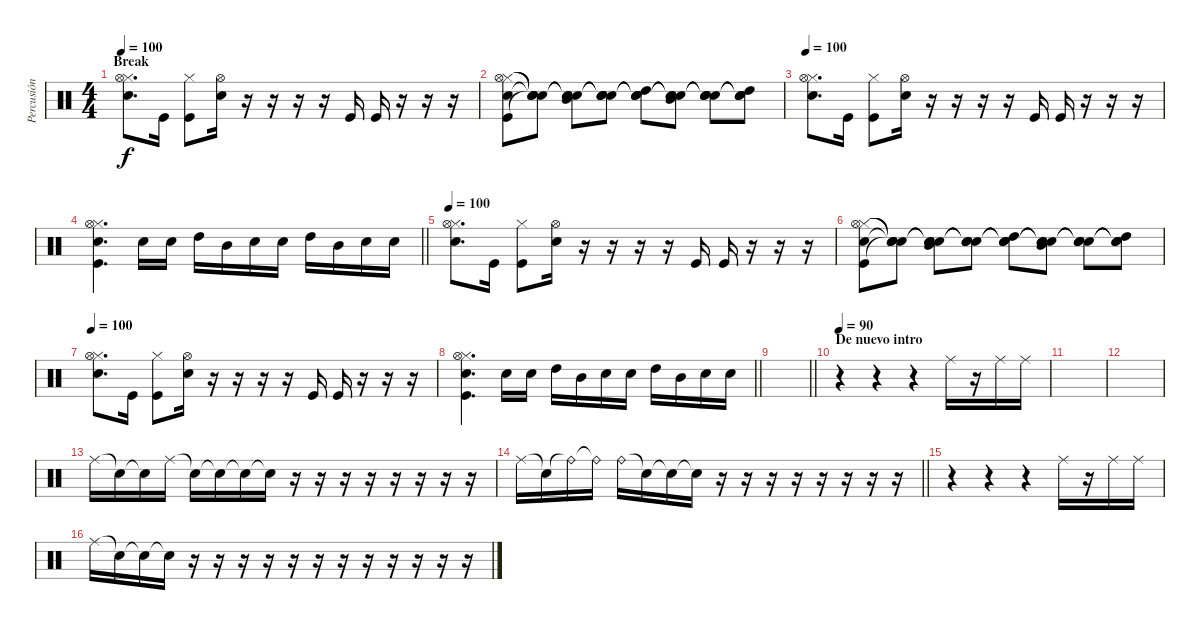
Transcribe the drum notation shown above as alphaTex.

\track ("Percusión" "Percusión") {instrument percussion}
\staff {score}
\articulation defaults
\ts (4 4)
\section ("" "Break")
\tempo 100
\clef neutral
\ks c
("Hi-Hat (closed)" "Hi-Hat (open)" "Electric Snare (hit)").8{d dy f} "Kick (hit)".16 ("Hi-Hat (closed)" "Kick (hit)").8 ("Hi-Hat (open)" "Electric Snare (hit)").16 r.16 r.16 r.16 r.16 "Kick (hit)".16 "Kick (hit)".16 r.16 r.16 r.16 |
("Hi-Hat (closed)" "Hi-Hat (open)" "Electric Snare (hit)" "Kick (hit)").8 ("Snare (hit)"{t} "Snare (hit)"{t} "Snare (hit)"{t} "Snare (hit)"{t}).8 ("Snare (hit)"{t} "Snare (hit)"{t} "Mid Tom (hit)" "Snare (hit)"{t}).8{volume 7} ("Snare (hit)"{t} "Snare (hit)"{t} "Snare (hit) 2" "Snare (hit)"{t}).8 ("Snare (hit)"{t} "Snare (hit)"{t} "High Tom (hit)" "Snare (hit)"{t}).8{volume 4} ("Snare (hit)"{t} "Snare (hit)"{t} "Mid Tom (hit)" "Snare (hit)"{t}).8 ("Snare (hit)"{t} "Snare (hit)"{t} "Electric Snare (hit)" "Snare (hit)"{t}).8{volume 1} ("Snare (hit)"{t} "Snare (hit)"{t} "High Tom (hit)" "Snare (hit)"{t}).8 |
\tempo 100
("Hi-Hat (closed)" "Hi-Hat (open)" "Electric Snare (hit)").8{d volume 13} "Kick (hit)".16 ("Hi-Hat (closed)" "Kick (hit)").8 ("Hi-Hat (open)" "Electric Snare (hit)").16 r.16 r.16 r.16 r.16 "Kick (hit)".16 "Kick (hit)".16 r.16 r.16 r.16 |
\barLineRight lightlight
("Hi-Hat (closed)" "Hi-Hat (open)" "Electric Snare (hit)" "Kick (hit)").4{d} "Snare (hit) 2".16 "Electric Snare (hit)".16 "High Tom (hit)".16 "Mid Tom (hit)".16 "Snare (hit) 2".16 "Electric Snare (hit)".16 "High Tom (hit)".16 "Mid Tom (hit)".16 "Snare (hit) 2".16 "Electric Snare (hit)".16 |
\section ("" "")
\tempo 100
("Hi-Hat (closed)" "Hi-Hat (open)" "Electric Snare (hit)").8{d} "Kick (hit)".16 ("Hi-Hat (closed)" "Kick (hit)").8 ("Hi-Hat (open)" "Electric Snare (hit)").16 r.16 r.16 r.16 r.16 "Kick (hit)".16 "Kick (hit)".16 r.16 r.16 r.16 |
("Hi-Hat (closed)" "Hi-Hat (open)" "Electric Snare (hit)" "Kick (hit)").8 ("Snare (hit)"{t} "Snare (hit)"{t} "Snare (hit)"{t} "Snare (hit)"{t}).8 ("Snare (hit)"{t} "Snare (hit)"{t} "Mid Tom (hit)" "Snare (hit)"{t}).8{volume 7} ("Snare (hit)"{t} "Snare (hit)"{t} "Snare (hit) 2" "Snare (hit)"{t}).8 ("Snare (hit)"{t} "Snare (hit)"{t} "High Tom (hit)" "Snare (hit)"{t}).8{volume 4} ("Snare (hit)"{t} "Snare (hit)"{t} "Mid Tom (hit)" "Snare (hit)"{t}).8 ("Snare (hit)"{t} "Snare (hit)"{t} "Electric Snare (hit)" "Snare (hit)"{t}).8{volume 1} ("Snare (hit)"{t} "Snare (hit)"{t} "High Tom (hit)" "Snare (hit)"{t}).8 |
\tempo 100
("Hi-Hat (closed)" "Hi-Hat (open)" "Electric Snare (hit)").8{d volume 13} "Kick (hit)".16 ("Hi-Hat (closed)" "Kick (hit)").8 ("Hi-Hat (open)" "Electric Snare (hit)").16 r.16 r.16 r.16 r.16 "Kick (hit)".16 "Kick (hit)".16 r.16 r.16 r.16 |
\barLineRight lightlight
("Hi-Hat (closed)" "Hi-Hat (open)" "Electric Snare (hit)" "Kick (hit)").4{d} "Snare (hit) 2".16 "Electric Snare (hit)".16 "High Tom (hit)".16 "Mid Tom (hit)".16 "Snare (hit) 2".16 "Electric Snare (hit)".16 "High Tom (hit)".16 "Mid Tom (hit)".16 "Snare (hit) 2".16 "Electric Snare (hit)".16 |
\barLineRight lightlight
|
\section ("" "De nuevo intro")
\tempo 90
r.4 r.4 r.4 "Ride (middle)".16 r.16 "Ride (middle)".16 "Ride (middle)".16 |
|
|
"Ride (middle)".16 "Snare (hit)"{t}.16 "Snare (hit)"{t}.16 "Ride (middle)".16 "Snare (hit)"{t}.16 "Snare (hit)"{t}.16 "Snare (hit)"{t}.16 "Snare (hit)"{t}.16 r.16 r.16 r.16 r.16 r.16 r.16 r.16 r.16 |
\barLineRight lightlight "Ride (middle)".16 "Snare (hit)"{t}.16 "Ride (bell)"{t}.16 "Ride (bell)"{t}.16 "Ride (bell)".16 "Snare (hit)"{t}.16 "Snare (hit)"{t}.16 "Snare (hit)"{t}.16
r.16 r.16 r.16 r.16 r.16 r.16 r.16 r.16 |
r.4 r.4 r.4 "Ride (middle)".16 r.16 "Ride (middle)".16 "Ride (middle)".16 |
"Ride (middle)".16 "Snare (hit)"{t}.16 "Snare (hit)"{t}.16 "Snare (hit)"{t}.16 r.16 r.16 r.16 r.16 r.16 r.16 r.16 r.16 r.16 r.16 r.16 r.16
